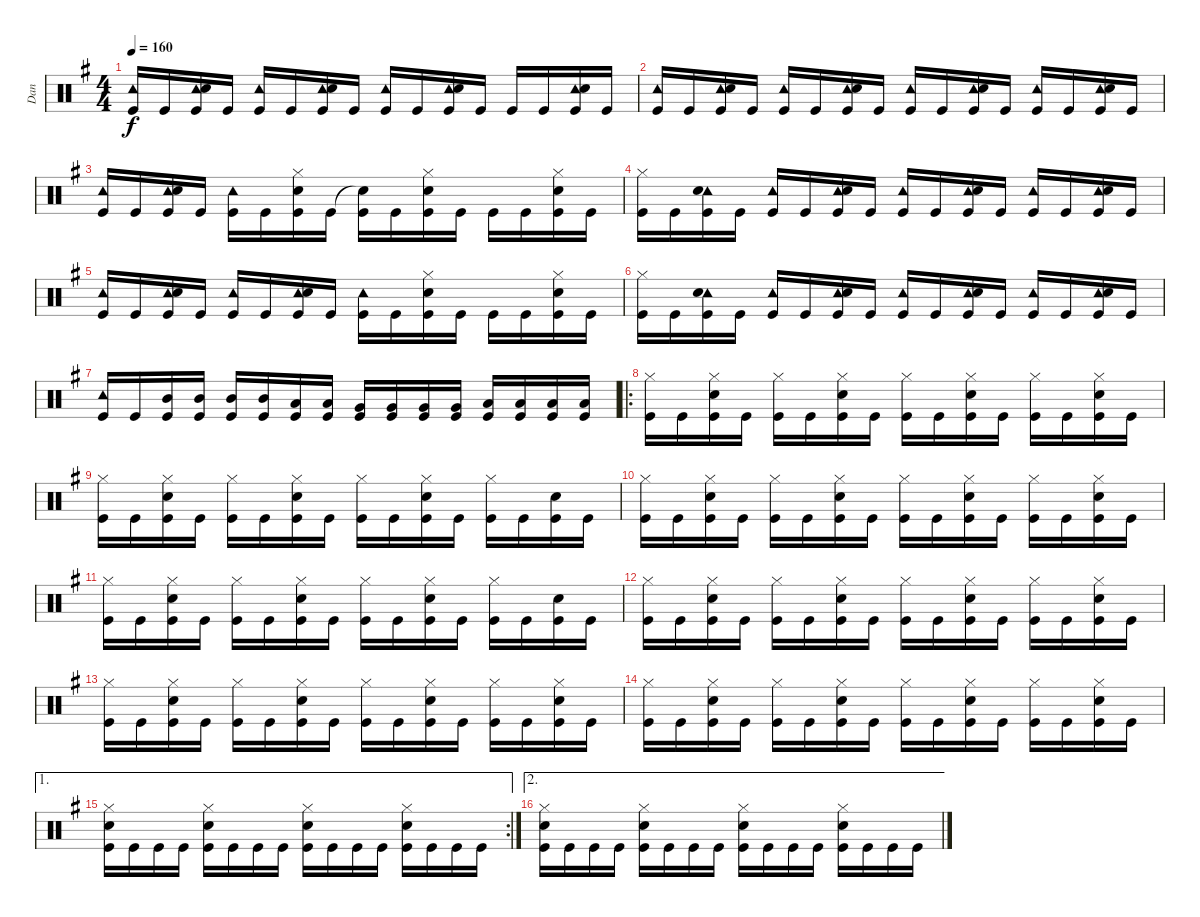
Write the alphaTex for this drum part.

\track ("Dan" "Dan") {instrument percussion}
\staff {score}
\articulation defaults
\ts (4 4)
\tempo 160
\clef neutral
\ks g
("Tambourine (hit)" "Kick (hit)").16{dy f} "Kick (hit)".16 ("Tambourine (hit)" "Snare (hit) 2" "Kick (hit)").16 "Kick (hit)".16 ("Tambourine (hit)" "Kick (hit)").16 "Kick (hit)".16 ("Tambourine (hit)" "Snare (hit) 2" "Kick (hit)").16 "Kick (hit)".16 ("Tambourine (hit)" "Kick (hit)").16 "Kick (hit)".16 ("Tambourine (hit)" "Snare (hit) 2" "Kick (hit)").16 "Kick (hit)".16 "Kick (hit)".16 "Kick (hit)".16 ("Tambourine (hit)" "Snare (hit) 2" "Kick (hit)").16 "Kick (hit)".16 |
("Tambourine (hit)" "Kick (hit)").16 "Kick (hit)".16 ("Tambourine (hit)" "Snare (hit) 2" "Kick (hit)").16 "Kick (hit)".16 ("Tambourine (hit)" "Kick (hit)").16 "Kick (hit)".16 ("Tambourine (hit)" "Snare (hit) 2" "Kick (hit)").16 "Kick (hit)".16 ("Tambourine (hit)" "Kick (hit)").16 "Kick (hit)".16 ("Tambourine (hit)" "Snare (hit) 2" "Kick (hit)").16 "Kick (hit)".16 ("Tambourine (hit)" "Kick (hit)").16 "Kick (hit)".16 ("Tambourine (hit)" "Snare (hit) 2" "Kick (hit)").16 "Kick (hit)".16 |
("Tambourine (hit)" "Kick (hit)").16 "Kick (hit)".16 ("Tambourine (hit)" "Snare (hit) 2" "Kick (hit)").16 "Kick (hit)".16 ("Tambourine (hit)" "Kick (hit)").16 "Kick (hit)".16 ("Hi-Hat (closed)" "Snare (hit) 2" "Kick (hit)").16 "Kick (hit)".16 ("Snare (hit)"{t} "Kick (hit)").16 "Kick (hit)".16 ("Hi-Hat (closed)" "Snare (hit) 2" "Kick (hit)").16 "Kick (hit)".16 "Kick (hit)".16 "Kick (hit)".16 ("Hi-Hat (closed)" "Snare (hit) 2" "Kick (hit)").16 "Kick (hit)".16 |
("Hi-Hat (closed)" "Kick (hit)").16 "Kick (hit)".16 ("Tambourine (hit)" "Snare (hit) 2" "Kick (hit)").16 "Kick (hit)".16 ("Tambourine (hit)" "Kick (hit)").16 "Kick (hit)".16 ("Tambourine (hit)" "Snare (hit) 2" "Kick (hit)").16 "Kick (hit)".16 ("Tambourine (hit)" "Kick (hit)").16 "Kick (hit)".16 ("Tambourine (hit)" "Snare (hit) 2" "Kick (hit)").16 "Kick (hit)".16 ("Tambourine (hit)" "Kick (hit)").16 "Kick (hit)".16 ("Tambourine (hit)" "Snare (hit) 2" "Kick (hit)").16 "Kick (hit)".16 |
("Tambourine (hit)" "Kick (hit)").16 "Kick (hit)".16 ("Tambourine (hit)" "Snare (hit) 2" "Kick (hit)").16 "Kick (hit)".16 ("Tambourine (hit)" "Kick (hit)").16 "Kick (hit)".16 ("Tambourine (hit)" "Snare (hit) 2" "Kick (hit)").16 "Kick (hit)".16 ("Tambourine (hit)" "Kick (hit)").16 "Kick (hit)".16 ("Hi-Hat (closed)" "Snare (hit) 2" "Kick (hit)").16 "Kick (hit)".16 "Kick (hit)".16 "Kick (hit)".16 ("Hi-Hat (closed)" "Snare (hit) 2" "Kick (hit)").16 "Kick (hit)".16 |
("Hi-Hat (closed)" "Kick (hit)").16 "Kick (hit)".16 ("Tambourine (hit)" "Snare (hit) 2" "Kick (hit)").16 "Kick (hit)".16 ("Tambourine (hit)" "Kick (hit)").16 "Kick (hit)".16 ("Tambourine (hit)" "Snare (hit) 2" "Kick (hit)").16 "Kick (hit)".16 ("Tambourine (hit)" "Kick (hit)").16 "Kick (hit)".16 ("Tambourine (hit)" "Snare (hit) 2" "Kick (hit)").16 "Kick (hit)".16 ("Tambourine (hit)" "Kick (hit)").16 "Kick (hit)".16 ("Tambourine (hit)" "Snare (hit) 2" "Kick (hit)").16 "Kick (hit)".16 |
("Tambourine (hit)" "Kick (hit)").16 "Kick (hit)".16 ("Mid Tom (hit)" "Kick (hit)").16 ("Mid Tom (hit)" "Kick (hit)").16 ("Mid Tom (hit)" "Kick (hit)").16 ("Mid Tom (hit)" "Kick (hit)").16 ("Low Tom (hit)" "Kick (hit)").16 ("Low Tom (hit)" "Kick (hit)").16 ("Very Low Tom (hit)" "Kick (hit)").16 ("Very Low Tom (hit)" "Kick (hit)").16 ("Very Low Tom (hit)" "Kick (hit)").16 ("Very Low Tom (hit)" "Kick (hit)").16 ("Low Floor Tom (hit)" "Kick (hit)").16 ("Low Floor Tom (hit)" "Kick (hit)").16 ("Low Floor Tom (hit)" "Kick (hit)").16 ("Low Floor Tom (hit)" "Kick (hit)").16 |
\ro
("Hi-Hat (closed)" "Kick (hit)").16 "Kick (hit)".16 ("Hi-Hat (closed)" "Snare (hit) 2" "Kick (hit)").16 "Kick (hit)".16 ("Hi-Hat (closed)" "Kick (hit)").16 "Kick (hit)".16 ("Hi-Hat (closed)" "Snare (hit) 2" "Kick (hit)").16 "Kick (hit)".16 ("Hi-Hat (closed)" "Kick (hit)").16 "Kick (hit)".16 ("Hi-Hat (closed)" "Snare (hit) 2" "Kick (hit)").16 "Kick (hit)".16 ("Hi-Hat (closed)" "Kick (hit)").16 "Kick (hit)".16 ("Hi-Hat (closed)" "Snare (hit) 2" "Kick (hit)").16 "Kick (hit)".16 |
("Hi-Hat (closed)" "Kick (hit)").16 "Kick (hit)".16 ("Hi-Hat (closed)" "Snare (hit) 2" "Kick (hit)").16 "Kick (hit)".16 ("Hi-Hat (closed)" "Kick (hit)").16 "Kick (hit)".16 ("Hi-Hat (closed)" "Snare (hit) 2" "Kick (hit)").16 "Kick (hit)".16 ("Hi-Hat (closed)" "Kick (hit)").16 "Kick (hit)".16 ("Hi-Hat (closed)" "Snare (hit) 2" "Kick (hit)").16 "Kick (hit)".16 ("Hi-Hat (closed)" "Kick (hit)").16 "Kick (hit)".16 ("Snare (hit) 2" "Kick (hit)").16 "Kick (hit)".16 |
("Hi-Hat (closed)" "Kick (hit)").16 "Kick (hit)".16 ("Hi-Hat (closed)" "Snare (hit) 2" "Kick (hit)").16 "Kick (hit)".16 ("Hi-Hat (closed)" "Kick (hit)").16 "Kick (hit)".16 ("Hi-Hat (closed)" "Snare (hit) 2" "Kick (hit)").16 "Kick (hit)".16 ("Hi-Hat (closed)" "Kick (hit)").16 "Kick (hit)".16 ("Hi-Hat (closed)" "Snare (hit) 2" "Kick (hit)").16 "Kick (hit)".16 ("Hi-Hat (closed)" "Kick (hit)").16 "Kick (hit)".16 ("Hi-Hat (closed)" "Snare (hit) 2" "Kick (hit)").16 "Kick (hit)".16 |
("Hi-Hat (closed)" "Kick (hit)").16 "Kick (hit)".16 ("Hi-Hat (closed)" "Snare (hit) 2" "Kick (hit)").16 "Kick (hit)".16 ("Hi-Hat (closed)" "Kick (hit)").16 "Kick (hit)".16 ("Hi-Hat (closed)" "Snare (hit) 2" "Kick (hit)").16 "Kick (hit)".16 ("Hi-Hat (closed)" "Kick (hit)").16 "Kick (hit)".16 ("Hi-Hat (closed)" "Snare (hit) 2" "Kick (hit)").16 "Kick (hit)".16 ("Hi-Hat (closed)" "Kick (hit)").16 "Kick (hit)".16 ("Snare (hit) 2" "Kick (hit)").16 "Kick (hit)".16 |
("Hi-Hat (closed)" "Kick (hit)").16 "Kick (hit)".16 ("Hi-Hat (closed)" "Snare (hit) 2" "Kick (hit)").16 "Kick (hit)".16 ("Hi-Hat (closed)" "Kick (hit)").16 "Kick (hit)".16 ("Hi-Hat (closed)" "Snare (hit) 2" "Kick (hit)").16 "Kick (hit)".16 ("Hi-Hat (closed)" "Kick (hit)").16 "Kick (hit)".16 ("Hi-Hat (closed)" "Snare (hit) 2" "Kick (hit)").16 "Kick (hit)".16 ("Hi-Hat (closed)" "Kick (hit)").16 "Kick (hit)".16 ("Hi-Hat (closed)" "Snare (hit) 2" "Kick (hit)").16 "Kick (hit)".16 |
("Hi-Hat (closed)" "Kick (hit)").16 "Kick (hit)".16 ("Hi-Hat (closed)" "Snare (hit) 2" "Kick (hit)").16 "Kick (hit)".16 ("Hi-Hat (closed)" "Kick (hit)").16 "Kick (hit)".16 ("Hi-Hat (closed)" "Snare (hit) 2" "Kick (hit)").16 "Kick (hit)".16 ("Hi-Hat (closed)" "Kick (hit)").16 "Kick (hit)".16 ("Hi-Hat (closed)" "Snare (hit) 2" "Kick (hit)").16 "Kick (hit)".16 ("Hi-Hat (closed)" "Kick (hit)").16 "Kick (hit)".16 ("Hi-Hat (closed)" "Snare (hit) 2" "Kick (hit)").16 "Kick (hit)".16 |
("Hi-Hat (closed)" "Kick (hit)").16 "Kick (hit)".16 ("Hi-Hat (closed)" "Snare (hit) 2" "Kick (hit)").16 "Kick (hit)".16 ("Hi-Hat (closed)" "Kick (hit)").16 "Kick (hit)".16 ("Hi-Hat (closed)" "Snare (hit) 2" "Kick (hit)").16 "Kick (hit)".16 ("Hi-Hat (closed)" "Kick (hit)").16 "Kick (hit)".16 ("Hi-Hat (closed)" "Snare (hit) 2" "Kick (hit)").16 "Kick (hit)".16 ("Hi-Hat (closed)" "Kick (hit)").16 "Kick (hit)".16 ("Hi-Hat (closed)" "Snare (hit) 2" "Kick (hit)").16 "Kick (hit)".16 |
\ae 1
\rc 2
("Hi-Hat (closed)" "Snare (hit) 2" "Kick (hit)").16 "Kick (hit)".16 "Kick (hit)".16 "Kick (hit)".16 ("Hi-Hat (closed)" "Snare (hit) 2" "Kick (hit)").16 "Kick (hit)".16 "Kick (hit)".16 "Kick (hit)".16 ("Hi-Hat (closed)" "Snare (hit) 2" "Kick (hit)").16 "Kick (hit)".16 "Kick (hit)".16 "Kick (hit)".16 ("Hi-Hat (closed)" "Snare (hit) 2" "Kick (hit)").16 "Kick (hit)".16 "Kick (hit)".16 "Kick (hit)".16 |
\ae 2
("Hi-Hat (closed)" "Snare (hit) 2" "Kick (hit)").16 "Kick (hit)".16 "Kick (hit)".16 "Kick (hit)".16 ("Hi-Hat (closed)" "Snare (hit) 2" "Kick (hit)").16 "Kick (hit)".16 "Kick (hit)".16 "Kick (hit)".16 ("Hi-Hat (closed)" "Snare (hit) 2" "Kick (hit)").16 "Kick (hit)".16 "Kick (hit)".16 "Kick (hit)".16 ("Hi-Hat (closed)" "Snare (hit) 2" "Kick (hit)").16 "Kick (hit)".16 "Kick (hit)".16 "Kick (hit)".16
